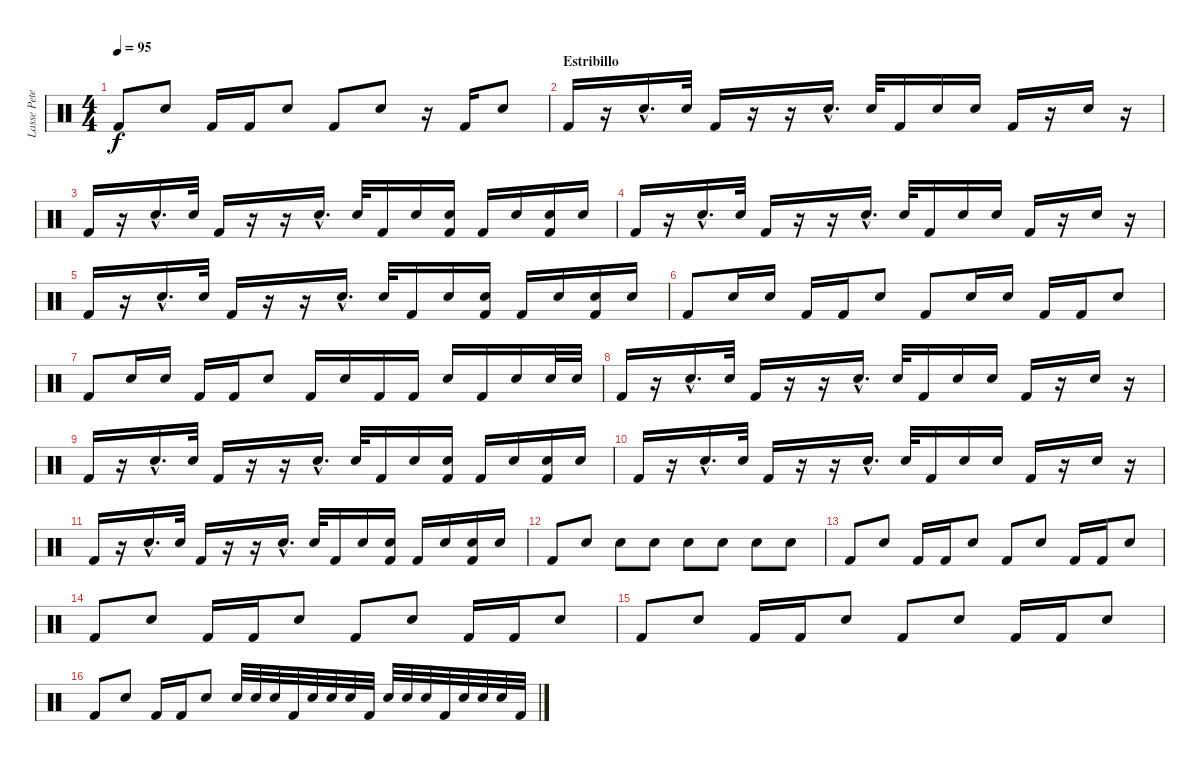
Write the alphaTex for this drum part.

\track ("Lasse Peterson" "Lasse Pete") {instrument percussion}
\staff {score}
\articulation defaults
\ts (4 4)
\tempo 95
\clef neutral
\ks c "Kick (hit) 2".8{dy f} "Electric Snare (hit)".8 "Kick (hit) 2".16 "Kick (hit) 2".16 "Electric Snare (hit)".8 "Kick (hit) 2".8 "Electric Snare (hit)".8
r.16 "Kick (hit) 2".16 "Electric Snare (hit)".8 |
\section ("" "Estribillo")
"Kick (hit) 2".16 r.16 "Electric Snare (hit)"{hac}.16{d} "Electric Snare (hit)".32 "Kick (hit) 2".16 r.16 r.16 "Electric Snare (hit)"{hac}.16{d} "Electric Snare (hit)".32 "Kick (hit) 2".16 "Electric Snare (hit)".16 "Electric Snare (hit)".16 "Kick (hit) 2".16 r.16 "Electric Snare (hit)".16 r.16 |
"Kick (hit) 2".16 r.16 "Electric Snare (hit)"{hac}.16{d} "Electric Snare (hit)".32 "Kick (hit) 2".16 r.16 r.16 "Electric Snare (hit)"{hac}.16{d} "Electric Snare (hit)".32 "Kick (hit) 2".16 "Electric Snare (hit)".16 ("Electric Snare (hit)" "Kick (hit) 2").16 "Kick (hit) 2".16 "Electric Snare (hit)".16 ("Electric Snare (hit)" "Kick (hit) 2").16 "Electric Snare (hit)".16 |
"Kick (hit) 2".16 r.16 "Electric Snare (hit)"{hac}.16{d} "Electric Snare (hit)".32 "Kick (hit) 2".16 r.16 r.16 "Electric Snare (hit)"{hac}.16{d} "Electric Snare (hit)".32 "Kick (hit) 2".16 "Electric Snare (hit)".16 "Electric Snare (hit)".16 "Kick (hit) 2".16 r.16 "Electric Snare (hit)".16 r.16 |
"Kick (hit) 2".16 r.16 "Electric Snare (hit)"{hac}.16{d} "Electric Snare (hit)".32 "Kick (hit) 2".16 r.16 r.16 "Electric Snare (hit)"{hac}.16{d} "Electric Snare (hit)".32 "Kick (hit) 2".16 "Electric Snare (hit)".16 ("Electric Snare (hit)" "Kick (hit) 2").16 "Kick (hit) 2".16 "Electric Snare (hit)".16 ("Electric Snare (hit)" "Kick (hit) 2").16 "Electric Snare (hit)".16 |
"Kick (hit) 2".8 "Electric Snare (hit)".16 "Electric Snare (hit)".16 "Kick (hit) 2".16 "Kick (hit) 2".16 "Electric Snare (hit)".8 "Kick (hit) 2".8 "Electric Snare (hit)".16 "Electric Snare (hit)".16 "Kick (hit) 2".16 "Kick (hit) 2".16 "Electric Snare (hit)".8 |
"Kick (hit) 2".8 "Electric Snare (hit)".16 "Electric Snare (hit)".16 "Kick (hit) 2".16 "Kick (hit) 2".16 "Electric Snare (hit)".8 "Kick (hit) 2".16 "Electric Snare (hit)".16 "Kick (hit) 2".16 "Kick (hit) 2".16 "Electric Snare (hit)".16 "Kick (hit) 2".16 "Electric Snare (hit)".16 "Electric Snare (hit)".32 "Electric Snare (hit)".32 |
"Kick (hit) 2".16 r.16 "Electric Snare (hit)"{hac}.16{d} "Electric Snare (hit)".32 "Kick (hit) 2".16 r.16 r.16 "Electric Snare (hit)"{hac}.16{d} "Electric Snare (hit)".32 "Kick (hit) 2".16 "Electric Snare (hit)".16 "Electric Snare (hit)".16 "Kick (hit) 2".16 r.16 "Electric Snare (hit)".16 r.16 |
"Kick (hit) 2".16 r.16 "Electric Snare (hit)"{hac}.16{d} "Electric Snare (hit)".32 "Kick (hit) 2".16 r.16 r.16 "Electric Snare (hit)"{hac}.16{d} "Electric Snare (hit)".32 "Kick (hit) 2".16 "Electric Snare (hit)".16 ("Electric Snare (hit)" "Kick (hit) 2").16 "Kick (hit) 2".16 "Electric Snare (hit)".16 ("Electric Snare (hit)" "Kick (hit) 2").16 "Electric Snare (hit)".16 |
"Kick (hit) 2".16 r.16 "Electric Snare (hit)"{hac}.16{d} "Electric Snare (hit)".32 "Kick (hit) 2".16 r.16 r.16 "Electric Snare (hit)"{hac}.16{d} "Electric Snare (hit)".32 "Kick (hit) 2".16 "Electric Snare (hit)".16 "Electric Snare (hit)".16 "Kick (hit) 2".16 r.16 "Electric Snare (hit)".16 r.16 |
"Kick (hit) 2".16 r.16 "Electric Snare (hit)"{hac}.16{d} "Electric Snare (hit)".32 "Kick (hit) 2".16 r.16 r.16 "Electric Snare (hit)"{hac}.16{d} "Electric Snare (hit)".32 "Kick (hit) 2".16 "Electric Snare (hit)".16 ("Electric Snare (hit)" "Kick (hit) 2").16 "Kick (hit) 2".16 "Electric Snare (hit)".16 ("Electric Snare (hit)" "Kick (hit) 2").16 "Electric Snare (hit)".16 |
"Kick (hit) 2".8 "Electric Snare (hit)".8 "Electric Snare (hit)".8 "Electric Snare (hit)".8 "Electric Snare (hit)".8 "Electric Snare (hit)".8 "Electric Snare (hit)".8 "Electric Snare (hit)".8 |
"Kick (hit) 2".8 "Electric Snare (hit)".8 "Kick (hit) 2".16 "Kick (hit) 2".16 "Electric Snare (hit)".8 "Kick (hit) 2".8 "Electric Snare (hit)".8 "Kick (hit) 2".16 "Kick (hit) 2".16 "Electric Snare (hit)".8 |
"Kick (hit) 2".8 "Electric Snare (hit)".8 "Kick (hit) 2".16 "Kick (hit) 2".16 "Electric Snare (hit)".8 "Kick (hit) 2".8 "Electric Snare (hit)".8 "Kick (hit) 2".16 "Kick (hit) 2".16 "Electric Snare (hit)".8 |
"Kick (hit) 2".8 "Electric Snare (hit)".8 "Kick (hit) 2".16 "Kick (hit) 2".16 "Electric Snare (hit)".8 "Kick (hit) 2".8 "Electric Snare (hit)".8 "Kick (hit) 2".16 "Kick (hit) 2".16 "Electric Snare (hit)".8 |
"Kick (hit) 2".8 "Electric Snare (hit)".8 "Kick (hit) 2".16 "Kick (hit) 2".16 "Electric Snare (hit)".8 "Electric Snare (hit)".32 "Electric Snare (hit)".32 "Electric Snare (hit)".32 "Kick (hit) 2".32 "Electric Snare (hit)".32 "Electric Snare (hit)".32 "Electric Snare (hit)".32 "Kick (hit) 2".32 "Electric Snare (hit)".32 "Electric Snare (hit)".32 "Electric Snare (hit)".32 "Kick (hit) 2".32 "Electric Snare (hit)".32 "Electric Snare (hit)".32 "Electric Snare (hit)".32 "Kick (hit) 2".32
